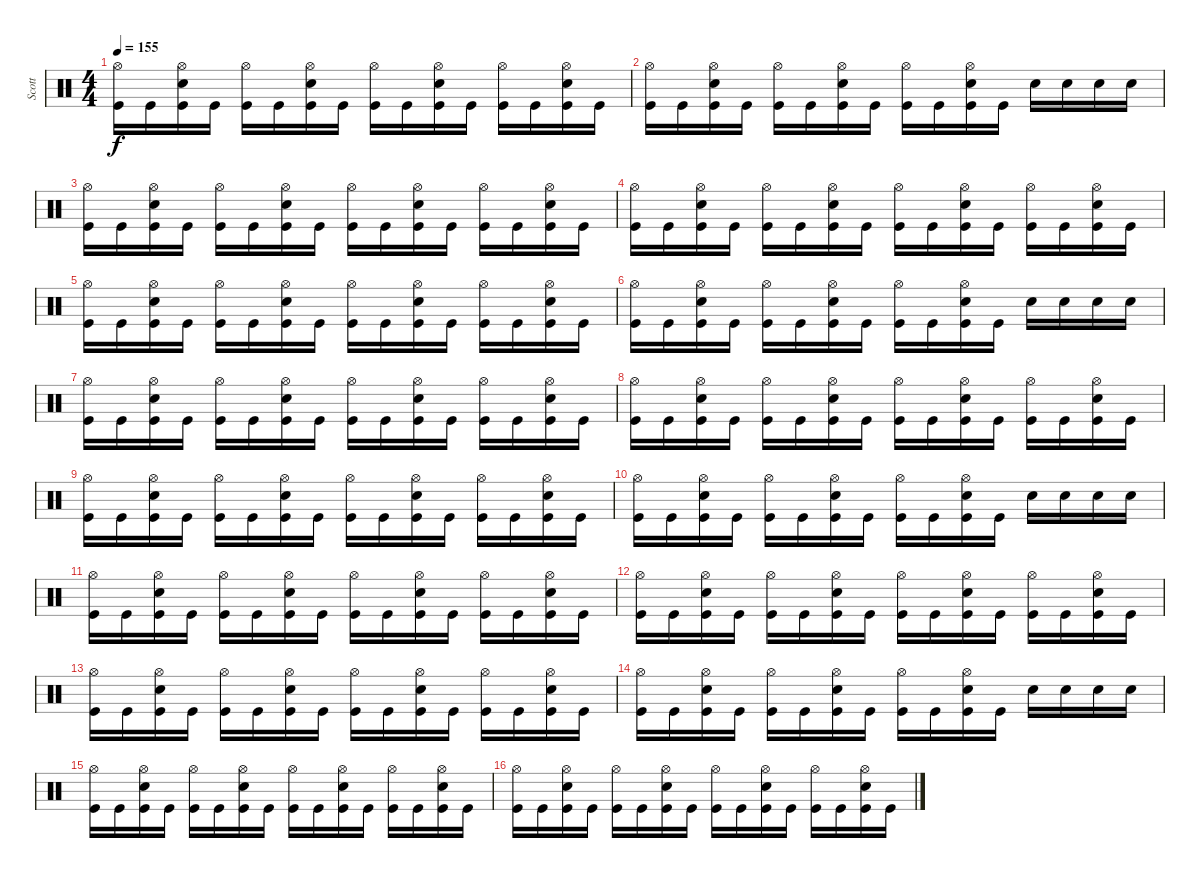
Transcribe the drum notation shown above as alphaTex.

\track ("Scott" "Scott") {instrument percussion}
\staff {score}
\articulation defaults
\ts (4 4)
\tempo 155
\clef neutral
\ks c
("Hi-Hat (open)" "Kick (hit)").16{dy f} "Kick (hit)".16 ("Hi-Hat (open)" "Snare (hit) 2" "Kick (hit)").16 "Kick (hit)".16 ("Hi-Hat (open)" "Kick (hit)").16 "Kick (hit)".16 ("Hi-Hat (open)" "Snare (hit) 2" "Kick (hit)").16 "Kick (hit)".16 ("Hi-Hat (open)" "Kick (hit)").16 "Kick (hit)".16 ("Hi-Hat (open)" "Snare (hit) 2" "Kick (hit)").16 "Kick (hit)".16 ("Hi-Hat (open)" "Kick (hit)").16 "Kick (hit)".16 ("Hi-Hat (open)" "Snare (hit) 2" "Kick (hit)").16 "Kick (hit)".16 |
("Hi-Hat (open)" "Kick (hit)").16 "Kick (hit)".16 ("Hi-Hat (open)" "Snare (hit) 2" "Kick (hit)").16 "Kick (hit)".16 ("Hi-Hat (open)" "Kick (hit)").16 "Kick (hit)".16 ("Hi-Hat (open)" "Snare (hit) 2" "Kick (hit)").16 "Kick (hit)".16 ("Hi-Hat (open)" "Kick (hit)").16 "Kick (hit)".16 ("Hi-Hat (open)" "Snare (hit) 2" "Kick (hit)").16 "Kick (hit)".16 "Snare (hit) 2".16 "Snare (hit) 2".16 "Snare (hit) 2".16 "Snare (hit) 2".16 |
("Hi-Hat (open)" "Kick (hit)").16 "Kick (hit)".16 ("Hi-Hat (open)" "Snare (hit) 2" "Kick (hit)").16 "Kick (hit)".16 ("Hi-Hat (open)" "Kick (hit)").16 "Kick (hit)".16 ("Hi-Hat (open)" "Snare (hit) 2" "Kick (hit)").16 "Kick (hit)".16 ("Hi-Hat (open)" "Kick (hit)").16 "Kick (hit)".16 ("Hi-Hat (open)" "Snare (hit) 2" "Kick (hit)").16 "Kick (hit)".16 ("Hi-Hat (open)" "Kick (hit)").16 "Kick (hit)".16 ("Hi-Hat (open)" "Snare (hit) 2" "Kick (hit)").16 "Kick (hit)".16 |
("Hi-Hat (open)" "Kick (hit)").16 "Kick (hit)".16 ("Hi-Hat (open)" "Snare (hit) 2" "Kick (hit)").16 "Kick (hit)".16 ("Hi-Hat (open)" "Kick (hit)").16 "Kick (hit)".16 ("Hi-Hat (open)" "Snare (hit) 2" "Kick (hit)").16 "Kick (hit)".16 ("Hi-Hat (open)" "Kick (hit)").16 "Kick (hit)".16 ("Hi-Hat (open)" "Snare (hit) 2" "Kick (hit)").16 "Kick (hit)".16 ("Hi-Hat (open)" "Kick (hit)").16 "Kick (hit)".16 ("Hi-Hat (open)" "Snare (hit) 2" "Kick (hit)").16 "Kick (hit)".16 |
("Hi-Hat (open)" "Kick (hit)").16 "Kick (hit)".16 ("Hi-Hat (open)" "Snare (hit) 2" "Kick (hit)").16 "Kick (hit)".16 ("Hi-Hat (open)" "Kick (hit)").16 "Kick (hit)".16 ("Hi-Hat (open)" "Snare (hit) 2" "Kick (hit)").16 "Kick (hit)".16 ("Hi-Hat (open)" "Kick (hit)").16 "Kick (hit)".16 ("Hi-Hat (open)" "Snare (hit) 2" "Kick (hit)").16 "Kick (hit)".16 ("Hi-Hat (open)" "Kick (hit)").16 "Kick (hit)".16 ("Hi-Hat (open)" "Snare (hit) 2" "Kick (hit)").16 "Kick (hit)".16 |
("Hi-Hat (open)" "Kick (hit)").16 "Kick (hit)".16 ("Hi-Hat (open)" "Snare (hit) 2" "Kick (hit)").16 "Kick (hit)".16 ("Hi-Hat (open)" "Kick (hit)").16 "Kick (hit)".16 ("Hi-Hat (open)" "Snare (hit) 2" "Kick (hit)").16 "Kick (hit)".16 ("Hi-Hat (open)" "Kick (hit)").16 "Kick (hit)".16 ("Hi-Hat (open)" "Snare (hit) 2" "Kick (hit)").16 "Kick (hit)".16 "Snare (hit) 2".16 "Snare (hit) 2".16 "Snare (hit) 2".16 "Snare (hit) 2".16 |
("Hi-Hat (open)" "Kick (hit)").16 "Kick (hit)".16 ("Hi-Hat (open)" "Snare (hit) 2" "Kick (hit)").16 "Kick (hit)".16 ("Hi-Hat (open)" "Kick (hit)").16 "Kick (hit)".16 ("Hi-Hat (open)" "Snare (hit) 2" "Kick (hit)").16 "Kick (hit)".16 ("Hi-Hat (open)" "Kick (hit)").16 "Kick (hit)".16 ("Hi-Hat (open)" "Snare (hit) 2" "Kick (hit)").16 "Kick (hit)".16 ("Hi-Hat (open)" "Kick (hit)").16 "Kick (hit)".16 ("Hi-Hat (open)" "Snare (hit) 2" "Kick (hit)").16 "Kick (hit)".16 |
("Hi-Hat (open)" "Kick (hit)").16 "Kick (hit)".16 ("Hi-Hat (open)" "Snare (hit) 2" "Kick (hit)").16 "Kick (hit)".16 ("Hi-Hat (open)" "Kick (hit)").16 "Kick (hit)".16 ("Hi-Hat (open)" "Snare (hit) 2" "Kick (hit)").16 "Kick (hit)".16 ("Hi-Hat (open)" "Kick (hit)").16 "Kick (hit)".16 ("Hi-Hat (open)" "Snare (hit) 2" "Kick (hit)").16 "Kick (hit)".16 ("Hi-Hat (open)" "Kick (hit)").16 "Kick (hit)".16 ("Hi-Hat (open)" "Snare (hit) 2" "Kick (hit)").16 "Kick (hit)".16 |
("Hi-Hat (open)" "Kick (hit)").16 "Kick (hit)".16 ("Hi-Hat (open)" "Snare (hit) 2" "Kick (hit)").16 "Kick (hit)".16 ("Hi-Hat (open)" "Kick (hit)").16 "Kick (hit)".16 ("Hi-Hat (open)" "Snare (hit) 2" "Kick (hit)").16 "Kick (hit)".16 ("Hi-Hat (open)" "Kick (hit)").16 "Kick (hit)".16 ("Hi-Hat (open)" "Snare (hit) 2" "Kick (hit)").16 "Kick (hit)".16 ("Hi-Hat (open)" "Kick (hit)").16 "Kick (hit)".16 ("Hi-Hat (open)" "Snare (hit) 2" "Kick (hit)").16 "Kick (hit)".16 |
("Hi-Hat (open)" "Kick (hit)").16 "Kick (hit)".16 ("Hi-Hat (open)" "Snare (hit) 2" "Kick (hit)").16 "Kick (hit)".16 ("Hi-Hat (open)" "Kick (hit)").16 "Kick (hit)".16 ("Hi-Hat (open)" "Snare (hit) 2" "Kick (hit)").16 "Kick (hit)".16 ("Hi-Hat (open)" "Kick (hit)").16 "Kick (hit)".16 ("Hi-Hat (open)" "Snare (hit) 2" "Kick (hit)").16 "Kick (hit)".16 "Snare (hit) 2".16 "Snare (hit) 2".16 "Snare (hit) 2".16 "Snare (hit) 2".16 |
("Hi-Hat (open)" "Kick (hit)").16 "Kick (hit)".16 ("Hi-Hat (open)" "Snare (hit) 2" "Kick (hit)").16 "Kick (hit)".16 ("Hi-Hat (open)" "Kick (hit)").16 "Kick (hit)".16 ("Hi-Hat (open)" "Snare (hit) 2" "Kick (hit)").16 "Kick (hit)".16 ("Hi-Hat (open)" "Kick (hit)").16 "Kick (hit)".16 ("Hi-Hat (open)" "Snare (hit) 2" "Kick (hit)").16 "Kick (hit)".16 ("Hi-Hat (open)" "Kick (hit)").16 "Kick (hit)".16 ("Hi-Hat (open)" "Snare (hit) 2" "Kick (hit)").16 "Kick (hit)".16 |
("Hi-Hat (open)" "Kick (hit)").16 "Kick (hit)".16 ("Hi-Hat (open)" "Snare (hit) 2" "Kick (hit)").16 "Kick (hit)".16 ("Hi-Hat (open)" "Kick (hit)").16 "Kick (hit)".16 ("Hi-Hat (open)" "Snare (hit) 2" "Kick (hit)").16 "Kick (hit)".16 ("Hi-Hat (open)" "Kick (hit)").16 "Kick (hit)".16 ("Hi-Hat (open)" "Snare (hit) 2" "Kick (hit)").16 "Kick (hit)".16 ("Hi-Hat (open)" "Kick (hit)").16 "Kick (hit)".16 ("Hi-Hat (open)" "Snare (hit) 2" "Kick (hit)").16 "Kick (hit)".16 |
("Hi-Hat (open)" "Kick (hit)").16 "Kick (hit)".16 ("Hi-Hat (open)" "Snare (hit) 2" "Kick (hit)").16 "Kick (hit)".16 ("Hi-Hat (open)" "Kick (hit)").16 "Kick (hit)".16 ("Hi-Hat (open)" "Snare (hit) 2" "Kick (hit)").16 "Kick (hit)".16 ("Hi-Hat (open)" "Kick (hit)").16 "Kick (hit)".16 ("Hi-Hat (open)" "Snare (hit) 2" "Kick (hit)").16 "Kick (hit)".16 ("Hi-Hat (open)" "Kick (hit)").16 "Kick (hit)".16 ("Hi-Hat (open)" "Snare (hit) 2" "Kick (hit)").16 "Kick (hit)".16 |
("Hi-Hat (open)" "Kick (hit)").16 "Kick (hit)".16 ("Hi-Hat (open)" "Snare (hit) 2" "Kick (hit)").16 "Kick (hit)".16 ("Hi-Hat (open)" "Kick (hit)").16 "Kick (hit)".16 ("Hi-Hat (open)" "Snare (hit) 2" "Kick (hit)").16 "Kick (hit)".16 ("Hi-Hat (open)" "Kick (hit)").16 "Kick (hit)".16 ("Hi-Hat (open)" "Snare (hit) 2" "Kick (hit)").16 "Kick (hit)".16 "Snare (hit) 2".16 "Snare (hit) 2".16 "Snare (hit) 2".16 "Snare (hit) 2".16 |
("Hi-Hat (open)" "Kick (hit)").16 "Kick (hit)".16 ("Hi-Hat (open)" "Snare (hit) 2" "Kick (hit)").16 "Kick (hit)".16 ("Hi-Hat (open)" "Kick (hit)").16 "Kick (hit)".16 ("Hi-Hat (open)" "Snare (hit) 2" "Kick (hit)").16 "Kick (hit)".16 ("Hi-Hat (open)" "Kick (hit)").16 "Kick (hit)".16 ("Hi-Hat (open)" "Snare (hit) 2" "Kick (hit)").16 "Kick (hit)".16 ("Hi-Hat (open)" "Kick (hit)").16 "Kick (hit)".16 ("Hi-Hat (open)" "Snare (hit) 2" "Kick (hit)").16 "Kick (hit)".16 |
("Hi-Hat (open)" "Kick (hit)").16 "Kick (hit)".16 ("Hi-Hat (open)" "Snare (hit) 2" "Kick (hit)").16 "Kick (hit)".16 ("Hi-Hat (open)" "Kick (hit)").16 "Kick (hit)".16 ("Hi-Hat (open)" "Snare (hit) 2" "Kick (hit)").16 "Kick (hit)".16 ("Hi-Hat (open)" "Kick (hit)").16 "Kick (hit)".16 ("Hi-Hat (open)" "Snare (hit) 2" "Kick (hit)").16 "Kick (hit)".16 ("Hi-Hat (open)" "Kick (hit)").16 "Kick (hit)".16 ("Hi-Hat (open)" "Snare (hit) 2" "Kick (hit)").16 "Kick (hit)".16
